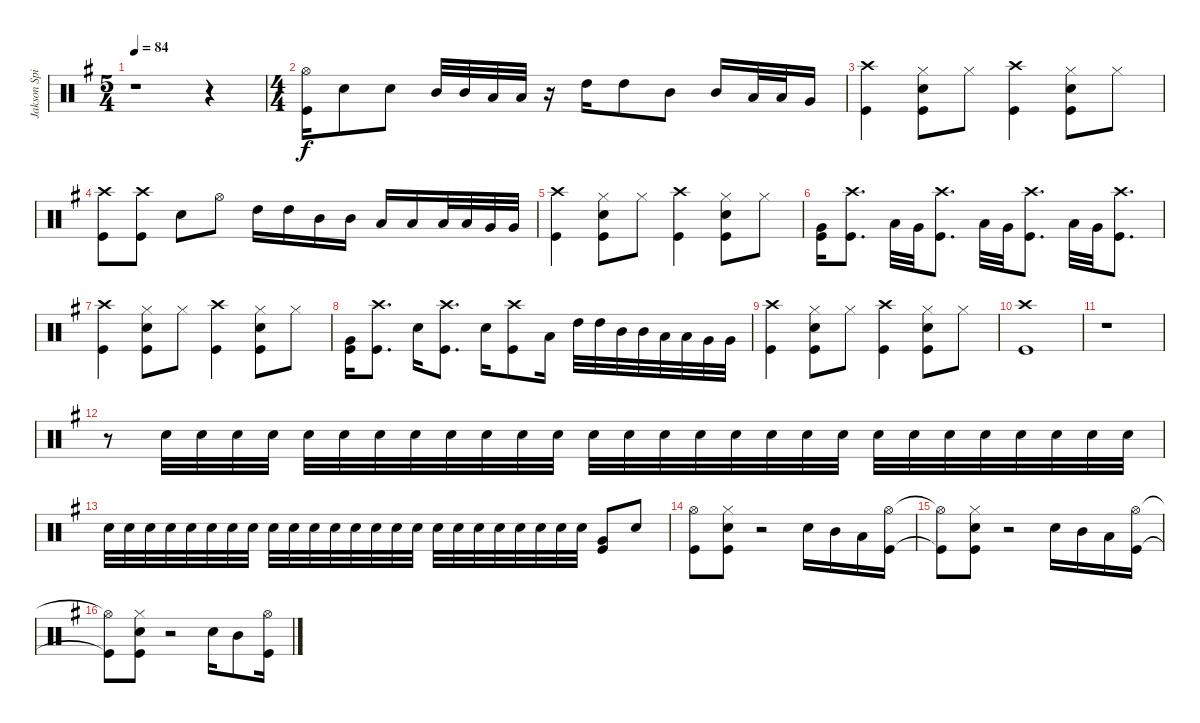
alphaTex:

\track ("Jakson Spires Drums" "Jakson Spi") {instrument percussion}
\staff {score}
\articulation defaults
\ts (5 4)
\tempo 84
\clef neutral
\ks g
r.1{dy f} r.4 |
\ts (4 4)
("Hi-Hat (open)" "Kick (hit)").16 "Snare (hit) 2".8 "Snare (hit) 2".8 "Mid Tom (hit)".32 "Mid Tom (hit)".32 "Low Tom (hit)".32 "Low Tom (hit)".32 r.16 "High Tom (hit)".16 "High Tom (hit)".8 "Mid Tom (hit)".8 "Mid Tom (hit)".16 "Low Tom (hit)".32 "Low Tom (hit)".32 "Very Low Tom (hit)".16 |
("Crash high (hit)" "Kick (hit)").4 ("Hi-Hat (closed)" "Snare (hit) 2" "Kick (hit)").8 "Hi-Hat (closed)".8 ("Crash high (hit)" "Kick (hit)").4 ("Hi-Hat (closed)" "Snare (hit) 2" "Kick (hit)").8 "Hi-Hat (closed)".8 |
("Crash high (hit)" "Kick (hit)").8 ("Crash high (hit)" "Kick (hit)").8 "Snare (hit) 2".8 "Hi-Hat (open)".8 "High Tom (hit)".16 "High Tom (hit)".16 "Mid Tom (hit)".16 "Mid Tom (hit)".16 "Low Tom (hit)".16 "Low Tom (hit)".16 "Low Tom (hit)".32 "Low Tom (hit)".32 "Very Low Tom (hit)".32 "Very Low Tom (hit)".32 |
("Crash high (hit)" "Kick (hit)").4 ("Hi-Hat (closed)" "Snare (hit) 2" "Kick (hit)").8 "Hi-Hat (closed)".8 ("Crash high (hit)" "Kick (hit)").4 ("Hi-Hat (closed)" "Snare (hit) 2" "Kick (hit)").8 "Hi-Hat (closed)".8 |
("Very Low Tom (hit)" "Kick (hit)").16 ("Crash high (hit)" "Kick (hit)").8{d} "Low Tom (hit)".32 "Very Low Tom (hit)".32 ("Crash high (hit)" "Kick (hit)").8{d} "Low Tom (hit)".32 "Very Low Tom (hit)".32 ("Crash high (hit)" "Kick (hit)").8{d} "Low Tom (hit)".32 "Very Low Tom (hit)".32 ("Crash high (hit)" "Kick (hit)").8{d} |
("Crash high (hit)" "Kick (hit)").4 ("Hi-Hat (closed)" "Snare (hit) 2" "Kick (hit)").8 "Hi-Hat (closed)".8 ("Crash high (hit)" "Kick (hit)").4 ("Hi-Hat (closed)" "Snare (hit) 2" "Kick (hit)").8 "Hi-Hat (closed)".8 |
("Very Low Tom (hit)" "Kick (hit)").16 ("Crash high (hit)" "Kick (hit)").8{d} "Snare (hit) 2".16 ("Crash high (hit)" "Kick (hit)").8{d} "Snare (hit) 2".16 ("Crash high (hit)" "Kick (hit)").8 "Low Tom (hit)".16 "High Tom (hit)".32 "High Tom (hit)".32 "Mid Tom (hit)".32 "Mid Tom (hit)".32 "Low Tom (hit)".32 "Low Tom (hit)".32 "Very Low Tom (hit)".32 "Very Low Tom (hit)".32 |
("Crash high (hit)" "Kick (hit)").4 ("Hi-Hat (closed)" "Snare (hit) 2" "Kick (hit)").8 "Hi-Hat (closed)".8 ("Crash high (hit)" "Kick (hit)").4 ("Hi-Hat (closed)" "Snare (hit) 2" "Kick (hit)").8 "Hi-Hat (closed)".8 |
("Crash high (hit)" "Kick (hit)").1 |
r.1{volume 5} |
r.8 "Snare (hit) 2".32{volume 12} "Snare (hit) 2".32 "Snare (hit) 2".32 "Snare (hit) 2".32 "Snare (hit) 2".32 "Snare (hit) 2".32 "Snare (hit) 2".32 "Snare (hit) 2".32 "Snare (hit) 2".32 "Snare (hit) 2".32 "Snare (hit) 2".32 "Snare (hit) 2".32 "Snare (hit) 2".32 "Snare (hit) 2".32 "Snare (hit) 2".32 "Snare (hit) 2".32 "Snare (hit) 2".32 "Snare (hit) 2".32 "Snare (hit) 2".32 "Snare (hit) 2".32 "Snare (hit) 2".32 "Snare (hit) 2".32 "Snare (hit) 2".32 "Snare (hit) 2".32 "Snare (hit) 2".32 "Snare (hit) 2".32 "Snare (hit) 2".32 "Snare (hit) 2".32 |
"Snare (hit) 2".32 "Snare (hit) 2".32 "Snare (hit) 2".32 "Snare (hit) 2".32 "Snare (hit) 2".32 "Snare (hit) 2".32 "Snare (hit) 2".32 "Snare (hit) 2".32 "Snare (hit) 2".32 "Snare (hit) 2".32 "Snare (hit) 2".32 "Snare (hit) 2".32 "Snare (hit) 2".32 "Snare (hit) 2".32 "Snare (hit) 2".32 "Snare (hit) 2".32 "Snare (hit) 2".32 "Snare (hit) 2".32 "Snare (hit) 2".32 "Snare (hit) 2".32 "Snare (hit) 2".32 "Snare (hit) 2".32 "Snare (hit) 2".32 "Snare (hit) 2".32 ("Very Low Tom (hit)" "Kick (hit)").8 "Snare (hit) 2".8 |
("Hi-Hat (open)" "Kick (hit)").8 ("Hi-Hat (closed)" "Snare (hit) 2" "Kick (hit)").8 r.2 "Snare (hit) 2".16 "Mid Tom (hit)".16 "Low Tom (hit)".16 ("Hi-Hat (open)" "Kick (hit)").16 |
("Hi-Hat (open)"{t} "Kick (hit)"{t}).8 ("Hi-Hat (closed)" "Snare (hit) 2" "Kick (hit)").8 r.2 "Snare (hit) 2".16 "Mid Tom (hit)".16 "Low Tom (hit)".16 ("Hi-Hat (open)" "Kick (hit)").16 |
("Hi-Hat (open)"{t} "Kick (hit)"{t}).8 ("Hi-Hat (closed)" "Snare (hit) 2" "Kick (hit)").8 r.2 "Snare (hit) 2".16 "Mid Tom (hit)".8 ("Hi-Hat (open)" "Kick (hit)").16
